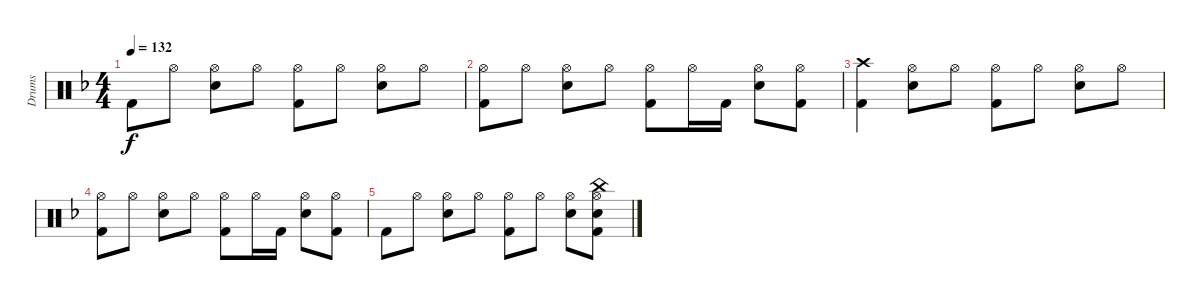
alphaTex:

\track ("Drums " "Drums ") {instrument percussion}
\staff {score}
\articulation defaults
\ts (4 4)
\tempo 132
\clef neutral
\ks dminor "Kick (hit) 2".8{dy f} "Hi-Hat (open)".8
("Snare (hit) 2" "Hi-Hat (open)").8 "Hi-Hat (open)".8 ("Kick (hit) 2" "Hi-Hat (open)").8 "Hi-Hat (open)".8 ("Snare (hit) 2" "Hi-Hat (open)").8 "Hi-Hat (open)".8 |
("Kick (hit) 2" "Hi-Hat (open)").8 "Hi-Hat (open)".8 ("Snare (hit) 2" "Hi-Hat (open)").8 "Hi-Hat (open)".8 ("Kick (hit) 2" "Hi-Hat (open)").8 "Hi-Hat (open)".16 "Kick (hit) 2".16 ("Snare (hit) 2" "Hi-Hat (open)").8 ("Kick (hit) 2" "Hi-Hat (open)").8 |
("Kick (hit) 2" "Crash high (hit)").4 ("Snare (hit) 2" "Hi-Hat (open)").8 "Hi-Hat (open)".8 ("Kick (hit) 2" "Hi-Hat (open)").8 "Hi-Hat (open)".8 ("Snare (hit) 2" "Hi-Hat (open)").8 "Hi-Hat (open)".8 |
("Kick (hit) 2" "Hi-Hat (open)").8 "Hi-Hat (open)".8 ("Snare (hit) 2" "Hi-Hat (open)").8 "Hi-Hat (open)".8 ("Kick (hit) 2" "Hi-Hat (open)").8 "Hi-Hat (open)".16 "Kick (hit) 2".16 ("Snare (hit) 2" "Hi-Hat (open)").8 ("Kick (hit) 2" "Hi-Hat (open)").8 |
"Kick (hit) 2".8 "Hi-Hat (open)".8 ("Snare (hit) 2" "Hi-Hat (open)").8 "Hi-Hat (open)".8 ("Kick (hit) 2" "Hi-Hat (open)").8 "Hi-Hat (open)".8 ("Snare (hit) 2" "Hi-Hat (open)").8 ("Kick (hit) 2" "Snare (hit) 2" "Hi-Hat (open)" "China (hit)").8
